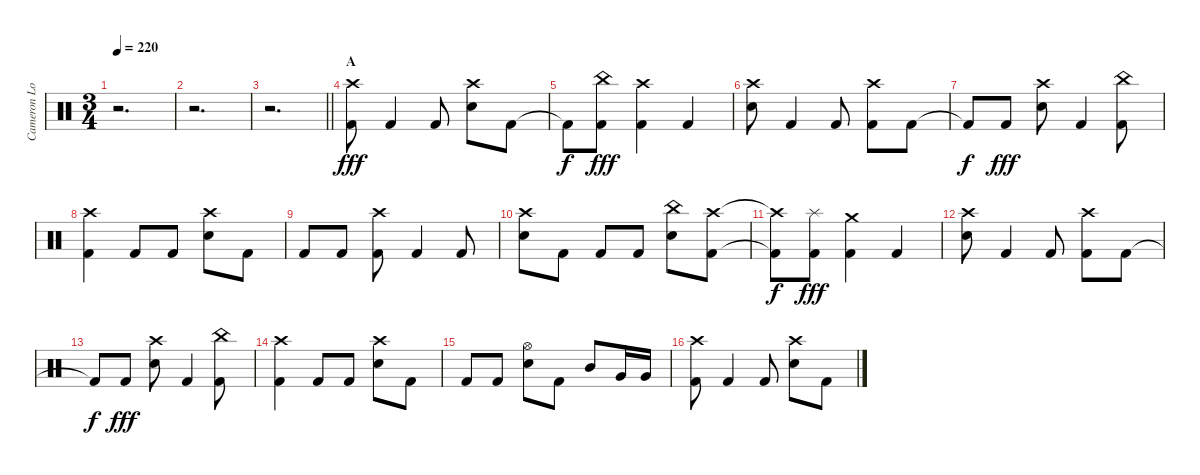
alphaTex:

\track ("Cameron Losch - Drums" "Cameron Lo") {instrument percussion}
\staff {score}
\articulation defaults
\ts (3 4)
\tempo 220
\clef neutral
\ks c
r.2{d dy fff} |
r.2{d} |
\barLineRight lightlight
r.2{d} |
\section ("" "A")
("Crash high (hit)" "Kick (hit) 2").8 "Kick (hit) 2".4 "Kick (hit) 2".8 ("Crash high (hit)" "Electric Snare (hit)").8 "Kick (hit) 2".8 |
"Kick (hit) 2"{t}.8{dy f} ("China (hit)" "Kick (hit) 2").8{dy fff} ("Crash high (hit)" "Kick (hit) 2").4 "Kick (hit) 2".4 |
("Crash high (hit)" "Electric Snare (hit)").8 "Kick (hit) 2".4 "Kick (hit) 2".8 ("Crash high (hit)" "Kick (hit) 2").8 "Kick (hit) 2".8 |
"Kick (hit) 2"{t}.8{dy f} "Kick (hit) 2".8{dy fff} ("Crash high (hit)" "Electric Snare (hit)").8 "Kick (hit) 2".4 ("China (hit)" "Kick (hit) 2").8 |
("Crash high (hit)" "Kick (hit) 2").4 "Kick (hit) 2".8 "Kick (hit) 2".8 ("Crash high (hit)" "Electric Snare (hit)").8 "Kick (hit) 2".8 |
"Kick (hit) 2".8 "Kick (hit) 2".8 ("Crash high (hit)" "Kick (hit) 2").8 "Kick (hit) 2".4 "Kick (hit) 2".8 |
("Crash high (hit)" "Electric Snare (hit)").8 "Kick (hit) 2".8 "Kick (hit) 2".8 "Kick (hit) 2".8 ("China (hit)" "Electric Snare (hit)").8 ("Crash high (hit)" "Kick (hit) 2").8 |
("Crash high (hit)"{t} "Kick (hit) 2"{t}).8{dy f} ("Splash (hit)" "Kick (hit) 2").8{dy fff} ("Crash medium (hit)" "Kick (hit) 2").4 "Kick (hit) 2".4 |
("Crash high (hit)" "Electric Snare (hit)").8 "Kick (hit) 2".4 "Kick (hit) 2".8 ("Crash high (hit)" "Kick (hit) 2").8 "Kick (hit) 2".8 |
"Kick (hit) 2"{t}.8{dy f} "Kick (hit) 2".8{dy fff} ("Crash high (hit)" "Electric Snare (hit)").8 "Kick (hit) 2".4 ("China (hit)" "Kick (hit) 2").8 |
("Crash high (hit)" "Kick (hit) 2").4 "Kick (hit) 2".8 "Kick (hit) 2".8 ("Crash high (hit)" "Electric Snare (hit)").8 "Kick (hit) 2".8 |
"Kick (hit) 2".8 "Kick (hit) 2".8 ("Hi-Hat (open)" "Electric Snare (hit)").8 "Kick (hit) 2".8 "Mid Tom (hit)".8 "Very Low Tom (hit)".16 "Very Low Tom (hit)".16 |
("Crash high (hit)" "Kick (hit) 2").8 "Kick (hit) 2".4 "Kick (hit) 2".8 ("Crash high (hit)" "Electric Snare (hit)").8 "Kick (hit) 2".8
